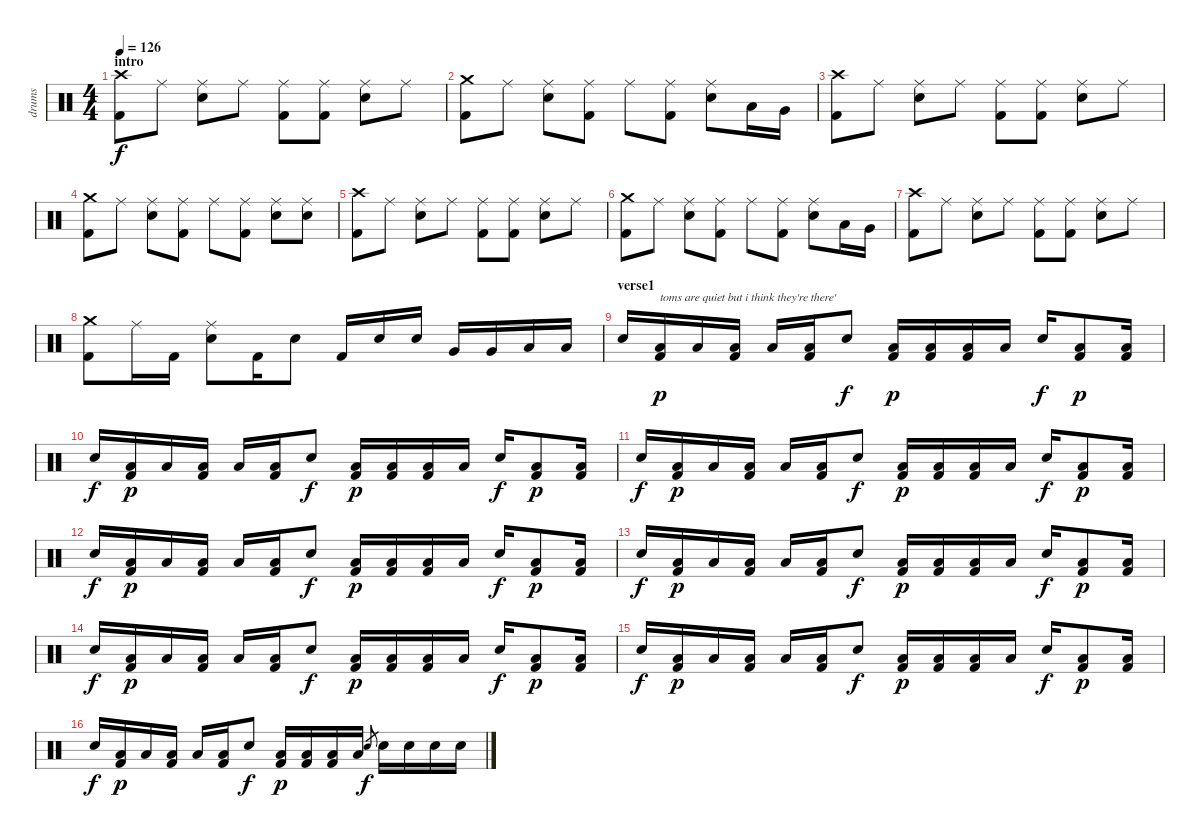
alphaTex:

\track ("drums" "drums") {instrument percussion}
\staff {score}
\articulation defaults
\ts (4 4)
\section ("" "intro")
\tempo 126
\clef neutral
\ks c
("Crash high (hit)" "Kick (hit) 2").8{dy f} "Ride (middle)".8 ("Ride (middle)" "Electric Snare (hit)").8 "Ride (middle)".8 ("Ride (middle)" "Kick (hit) 2").8 ("Ride (middle)" "Kick (hit) 2").8 ("Ride (middle)" "Electric Snare (hit)").8 "Ride (middle)".8 |
("Crash medium (hit)" "Kick (hit) 2").8 "Ride (middle)".8 ("Ride (middle)" "Electric Snare (hit)").8 ("Ride (middle)" "Kick (hit) 2").8 "Ride (middle)".8 ("Ride (middle)" "Kick (hit) 2").8 ("Ride (middle)" "Electric Snare (hit)").8 "Low Tom (hit)".16 "Very Low Tom (hit)".16 |
("Crash high (hit)" "Kick (hit) 2").8 "Ride (middle)".8 ("Ride (middle)" "Electric Snare (hit)").8 "Ride (middle)".8 ("Ride (middle)" "Kick (hit) 2").8 ("Ride (middle)" "Kick (hit) 2").8 ("Ride (middle)" "Electric Snare (hit)").8 "Ride (middle)".8 |
("Crash medium (hit)" "Kick (hit) 2").8 "Ride (middle)".8 ("Ride (middle)" "Electric Snare (hit)").8 ("Ride (middle)" "Kick (hit) 2").8 "Ride (middle)".8 ("Ride (middle)" "Kick (hit) 2").8 ("Ride (middle)" "Electric Snare (hit)").8 ("Ride (middle)" "Electric Snare (hit)").8 |
("Crash high (hit)" "Kick (hit) 2").8 "Ride (middle)".8 ("Ride (middle)" "Electric Snare (hit)").8 "Ride (middle)".8 ("Ride (middle)" "Kick (hit) 2").8 ("Ride (middle)" "Kick (hit) 2").8 ("Ride (middle)" "Electric Snare (hit)").8 "Ride (middle)".8 |
("Crash medium (hit)" "Kick (hit) 2").8 "Ride (middle)".8 ("Ride (middle)" "Electric Snare (hit)").8 ("Ride (middle)" "Kick (hit) 2").8 "Ride (middle)".8 ("Ride (middle)" "Kick (hit) 2").8 ("Ride (middle)" "Electric Snare (hit)").8 "Low Tom (hit)".16 "Very Low Tom (hit)".16 |
("Crash high (hit)" "Kick (hit) 2").8 "Ride (middle)".8 ("Ride (middle)" "Electric Snare (hit)").8 "Ride (middle)".8 ("Ride (middle)" "Kick (hit) 2").8 ("Ride (middle)" "Kick (hit) 2").8 ("Ride (middle)" "Electric Snare (hit)").8 "Ride (middle)".8 |
("Crash medium (hit)" "Kick (hit) 2").8 "Ride (middle)".16 "Kick (hit) 2".16 ("Ride (middle)" "Electric Snare (hit)").8 "Kick (hit) 2".16 "Electric Snare (hit)".8 "Kick (hit) 2".16 "Electric Snare (hit)".16 "Electric Snare (hit)".16 "Very Low Tom (hit)".16 "Very Low Tom (hit)".16 "Low Floor Tom (hit)".16 "Low Floor Tom (hit)".16 |
\section ("" "verse1")
"Electric Snare (hit)".16 ("Low Floor Tom (hit)" "Kick (hit) 2").16{txt "toms are quiet but i think they're there'" dy p} "Low Floor Tom (hit)".16 ("Low Floor Tom (hit)" "Kick (hit) 2").16 "Low Floor Tom (hit)".16 ("Low Floor Tom (hit)" "Kick (hit) 2").16 "Electric Snare (hit)".8{dy f} ("Low Floor Tom (hit)" "Kick (hit) 2").16{dy p} ("Low Floor Tom (hit)" "Kick (hit) 2").16 ("Low Floor Tom (hit)" "Kick (hit) 2").16 "Low Floor Tom (hit)".16 "Electric Snare (hit)".16{dy f} ("Low Floor Tom (hit)" "Kick (hit) 2").8{dy p} ("Low Floor Tom (hit)" "Kick (hit) 2").16 |
"Electric Snare (hit)".16{dy f} ("Low Floor Tom (hit)" "Kick (hit) 2").16{dy p} "Low Floor Tom (hit)".16 ("Low Floor Tom (hit)" "Kick (hit) 2").16 "Low Floor Tom (hit)".16 ("Low Floor Tom (hit)" "Kick (hit) 2").16 "Electric Snare (hit)".8{dy f} ("Low Floor Tom (hit)" "Kick (hit) 2").16{dy p} ("Low Floor Tom (hit)" "Kick (hit) 2").16 ("Low Floor Tom (hit)" "Kick (hit) 2").16 "Low Floor Tom (hit)".16 "Electric Snare (hit)".16{dy f} ("Low Floor Tom (hit)" "Kick (hit) 2").8{dy p} ("Low Floor Tom (hit)" "Kick (hit) 2").16 |
"Electric Snare (hit)".16{dy f} ("Low Floor Tom (hit)" "Kick (hit) 2").16{dy p} "Low Floor Tom (hit)".16 ("Low Floor Tom (hit)" "Kick (hit) 2").16 "Low Floor Tom (hit)".16 ("Low Floor Tom (hit)" "Kick (hit) 2").16 "Electric Snare (hit)".8{dy f} ("Low Floor Tom (hit)" "Kick (hit) 2").16{dy p} ("Low Floor Tom (hit)" "Kick (hit) 2").16 ("Low Floor Tom (hit)" "Kick (hit) 2").16 "Low Floor Tom (hit)".16 "Electric Snare (hit)".16{dy f} ("Low Floor Tom (hit)" "Kick (hit) 2").8{dy p} ("Low Floor Tom (hit)" "Kick (hit) 2").16 |
"Electric Snare (hit)".16{dy f} ("Low Floor Tom (hit)" "Kick (hit) 2").16{dy p} "Low Floor Tom (hit)".16 ("Low Floor Tom (hit)" "Kick (hit) 2").16 "Low Floor Tom (hit)".16 ("Low Floor Tom (hit)" "Kick (hit) 2").16 "Electric Snare (hit)".8{dy f} ("Low Floor Tom (hit)" "Kick (hit) 2").16{dy p} ("Low Floor Tom (hit)" "Kick (hit) 2").16 ("Low Floor Tom (hit)" "Kick (hit) 2").16 "Low Floor Tom (hit)".16 "Electric Snare (hit)".16{dy f} ("Low Floor Tom (hit)" "Kick (hit) 2").8{dy p} ("Low Floor Tom (hit)" "Kick (hit) 2").16 |
"Electric Snare (hit)".16{dy f} ("Low Floor Tom (hit)" "Kick (hit) 2").16{dy p} "Low Floor Tom (hit)".16 ("Low Floor Tom (hit)" "Kick (hit) 2").16 "Low Floor Tom (hit)".16 ("Low Floor Tom (hit)" "Kick (hit) 2").16 "Electric Snare (hit)".8{dy f} ("Low Floor Tom (hit)" "Kick (hit) 2").16{dy p} ("Low Floor Tom (hit)" "Kick (hit) 2").16 ("Low Floor Tom (hit)" "Kick (hit) 2").16 "Low Floor Tom (hit)".16 "Electric Snare (hit)".16{dy f} ("Low Floor Tom (hit)" "Kick (hit) 2").8{dy p} ("Low Floor Tom (hit)" "Kick (hit) 2").16 |
"Electric Snare (hit)".16{dy f} ("Low Floor Tom (hit)" "Kick (hit) 2").16{dy p} "Low Floor Tom (hit)".16 ("Low Floor Tom (hit)" "Kick (hit) 2").16 "Low Floor Tom (hit)".16 ("Low Floor Tom (hit)" "Kick (hit) 2").16 "Electric Snare (hit)".8{dy f} ("Low Floor Tom (hit)" "Kick (hit) 2").16{dy p} ("Low Floor Tom (hit)" "Kick (hit) 2").16 ("Low Floor Tom (hit)" "Kick (hit) 2").16 "Low Floor Tom (hit)".16 "Electric Snare (hit)".16{dy f} ("Low Floor Tom (hit)" "Kick (hit) 2").8{dy p} ("Low Floor Tom (hit)" "Kick (hit) 2").16 |
"Electric Snare (hit)".16{dy f} ("Low Floor Tom (hit)" "Kick (hit) 2").16{dy p} "Low Floor Tom (hit)".16 ("Low Floor Tom (hit)" "Kick (hit) 2").16 "Low Floor Tom (hit)".16 ("Low Floor Tom (hit)" "Kick (hit) 2").16 "Electric Snare (hit)".8{dy f} ("Low Floor Tom (hit)" "Kick (hit) 2").16{dy p} ("Low Floor Tom (hit)" "Kick (hit) 2").16 ("Low Floor Tom (hit)" "Kick (hit) 2").16 "Low Floor Tom (hit)".16 "Electric Snare (hit)".16{dy f} ("Low Floor Tom (hit)" "Kick (hit) 2").8{dy p} ("Low Floor Tom (hit)" "Kick (hit) 2").16 |
"Electric Snare (hit)".16{dy f} ("Low Floor Tom (hit)" "Kick (hit) 2").16{dy p} "Low Floor Tom (hit)".16 ("Low Floor Tom (hit)" "Kick (hit) 2").16 "Low Floor Tom (hit)".16 ("Low Floor Tom (hit)" "Kick (hit) 2").16 "Electric Snare (hit)".8{dy f} ("Low Floor Tom (hit)" "Kick (hit) 2").16{dy p} ("Low Floor Tom (hit)" "Kick (hit) 2").16 ("Low Floor Tom (hit)" "Kick (hit) 2").16 "Low Floor Tom (hit)".16 "Electric Snare (hit)".8{gr dy f} "Electric Snare (hit)".16 "Electric Snare (hit)".16 "Electric Snare (hit)".16 "Electric Snare (hit)".16
